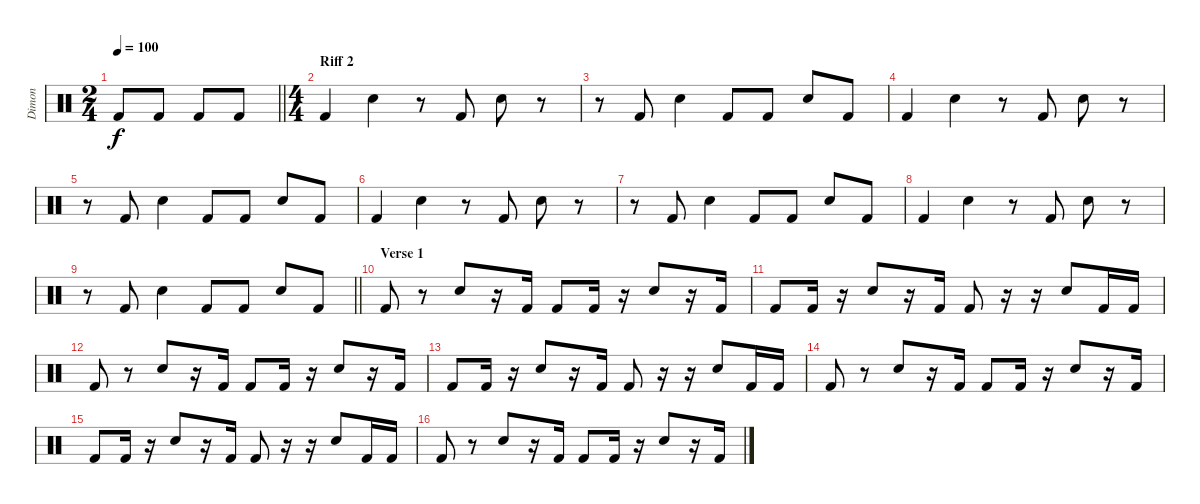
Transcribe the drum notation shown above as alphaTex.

\track ("Dimon" "Dimon") {instrument percussion}
\staff {score}
\articulation defaults
\ts (2 4)
\tempo 100
\clef neutral
\barLineRight lightlight
\ks c "Kick (hit) 2".8{dy f} "Kick (hit) 2".8 "Kick (hit) 2".8 "Kick (hit) 2".8
|
\ts (4 4)
\section ("" "Riff 2")
"Kick (hit) 2".4 "Electric Snare (hit)".4 r.8 "Kick (hit) 2".8 "Electric Snare (hit)".8 r.8 |
r.8 "Kick (hit) 2".8 "Electric Snare (hit)".4 "Kick (hit) 2".8 "Kick (hit) 2".8 "Electric Snare (hit)".8 "Kick (hit) 2".8 |
"Kick (hit) 2".4 "Electric Snare (hit)".4 r.8 "Kick (hit) 2".8 "Electric Snare (hit)".8 r.8 |
r.8 "Kick (hit) 2".8 "Electric Snare (hit)".4 "Kick (hit) 2".8 "Kick (hit) 2".8 "Electric Snare (hit)".8 "Kick (hit) 2".8 |
"Kick (hit) 2".4 "Electric Snare (hit)".4 r.8 "Kick (hit) 2".8 "Electric Snare (hit)".8 r.8 |
r.8 "Kick (hit) 2".8 "Electric Snare (hit)".4 "Kick (hit) 2".8 "Kick (hit) 2".8 "Electric Snare (hit)".8 "Kick (hit) 2".8 |
"Kick (hit) 2".4 "Electric Snare (hit)".4 r.8 "Kick (hit) 2".8 "Electric Snare (hit)".8 r.8 |
\barLineRight lightlight
r.8 "Kick (hit) 2".8 "Electric Snare (hit)".4 "Kick (hit) 2".8 "Kick (hit) 2".8 "Electric Snare (hit)".8 "Kick (hit) 2".8 |
\section ("" "Verse 1")
"Kick (hit) 2".8 r.8 "Electric Snare (hit)".8 r.16 "Kick (hit) 2".16 "Kick (hit) 2".8 "Kick (hit) 2".16 r.16 "Electric Snare (hit)".8 r.16 "Kick (hit) 2".16 |
"Kick (hit) 2".8 "Kick (hit) 2".16 r.16 "Electric Snare (hit)".8 r.16 "Kick (hit) 2".16 "Kick (hit) 2".8 r.16 r.16 "Electric Snare (hit)".8 "Kick (hit) 2".16 "Kick (hit) 2".16 |
"Kick (hit) 2".8 r.8 "Electric Snare (hit)".8 r.16 "Kick (hit) 2".16 "Kick (hit) 2".8 "Kick (hit) 2".16 r.16 "Electric Snare (hit)".8 r.16 "Kick (hit) 2".16 |
"Kick (hit) 2".8 "Kick (hit) 2".16 r.16 "Electric Snare (hit)".8 r.16 "Kick (hit) 2".16 "Kick (hit) 2".8 r.16 r.16 "Electric Snare (hit)".8 "Kick (hit) 2".16 "Kick (hit) 2".16 |
"Kick (hit) 2".8 r.8 "Electric Snare (hit)".8 r.16 "Kick (hit) 2".16 "Kick (hit) 2".8 "Kick (hit) 2".16 r.16 "Electric Snare (hit)".8 r.16 "Kick (hit) 2".16 |
"Kick (hit) 2".8 "Kick (hit) 2".16 r.16 "Electric Snare (hit)".8 r.16 "Kick (hit) 2".16 "Kick (hit) 2".8 r.16 r.16 "Electric Snare (hit)".8 "Kick (hit) 2".16 "Kick (hit) 2".16 |
"Kick (hit) 2".8 r.8 "Electric Snare (hit)".8 r.16 "Kick (hit) 2".16 "Kick (hit) 2".8 "Kick (hit) 2".16 r.16 "Electric Snare (hit)".8 r.16 "Kick (hit) 2".16
